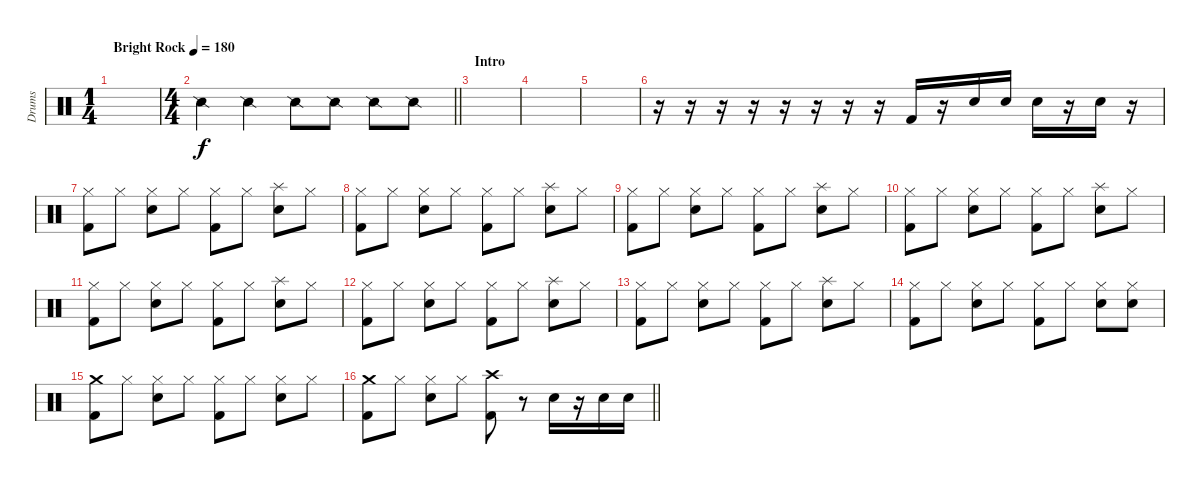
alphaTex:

\track ("Drums" "Drums") {instrument percussion}
\staff {score}
\articulation defaults
\ts (1 4)
\tempo (180 "Bright Rock")
\clef neutral
\ks c
|
\ts (4 4)
\barLineRight lightlight "Snare (side stick) 2".4 "Snare (side stick) 2".4 "Snare (side stick) 2".8 "Snare (side stick) 2".8 "Snare (side stick) 2".8 "Snare (side stick) 2".8
|
\section ("" "Intro")
|
|
|
r.16 r.16 r.16 r.16 r.16 r.16 r.16 r.16 "Kick (hit) 2".16 r.16 "Snare (hit) 2".16 "Snare (hit) 2".16 "Snare (hit) 2".16 r.16 "Snare (hit) 2".16 r.16 |
("Hi-Hat (closed)" "Kick (hit) 2").8 "Hi-Hat (closed)".8 ("Hi-Hat (closed)" "Snare (hit) 2").8 "Hi-Hat (closed)".8 ("Hi-Hat (closed)" "Kick (hit) 2").8 "Hi-Hat (closed)".8 ("Splash (hit)" "Snare (hit) 2").8 "Hi-Hat (closed)".8 |
("Hi-Hat (closed)" "Kick (hit) 2").8 "Hi-Hat (closed)".8 ("Hi-Hat (closed)" "Snare (hit) 2").8 "Hi-Hat (closed)".8 ("Hi-Hat (closed)" "Kick (hit) 2").8 "Hi-Hat (closed)".8 ("Splash (hit)" "Snare (hit) 2").8 "Hi-Hat (closed)".8 |
("Hi-Hat (closed)" "Kick (hit) 2").8 "Hi-Hat (closed)".8 ("Hi-Hat (closed)" "Snare (hit) 2").8 "Hi-Hat (closed)".8 ("Hi-Hat (closed)" "Kick (hit) 2").8 "Hi-Hat (closed)".8 ("Splash (hit)" "Snare (hit) 2").8 "Hi-Hat (closed)".8 |
("Hi-Hat (closed)" "Kick (hit) 2").8 "Hi-Hat (closed)".8 ("Hi-Hat (closed)" "Snare (hit) 2").8 "Hi-Hat (closed)".8 ("Hi-Hat (closed)" "Kick (hit) 2").8 "Hi-Hat (closed)".8 ("Splash (hit)" "Snare (hit) 2").8 "Hi-Hat (closed)".8 |
("Hi-Hat (closed)" "Kick (hit) 2").8 "Hi-Hat (closed)".8 ("Hi-Hat (closed)" "Snare (hit) 2").8 "Hi-Hat (closed)".8 ("Hi-Hat (closed)" "Kick (hit) 2").8 "Hi-Hat (closed)".8 ("Splash (hit)" "Snare (hit) 2").8 "Hi-Hat (closed)".8 |
("Hi-Hat (closed)" "Kick (hit) 2").8 "Hi-Hat (closed)".8 ("Hi-Hat (closed)" "Snare (hit) 2").8 "Hi-Hat (closed)".8 ("Hi-Hat (closed)" "Kick (hit) 2").8 "Hi-Hat (closed)".8 ("Splash (hit)" "Snare (hit) 2").8 "Hi-Hat (closed)".8 |
("Hi-Hat (closed)" "Kick (hit) 2").8 "Hi-Hat (closed)".8 ("Hi-Hat (closed)" "Snare (hit) 2").8 "Hi-Hat (closed)".8 ("Hi-Hat (closed)" "Kick (hit) 2").8 "Hi-Hat (closed)".8 ("Splash (hit)" "Snare (hit) 2").8 "Hi-Hat (closed)".8 |
("Hi-Hat (closed)" "Kick (hit) 2").8 "Hi-Hat (closed)".8 ("Hi-Hat (closed)" "Snare (hit) 2").8 "Hi-Hat (closed)".8 ("Hi-Hat (closed)" "Kick (hit) 2").8 "Hi-Hat (closed)".8 ("Hi-Hat (closed)" "Snare (hit) 2").8 ("Hi-Hat (closed)" "Snare (hit) 2").8 |
("Crash medium (hit)" "Kick (hit) 2").8 "Hi-Hat (closed)".8 ("Hi-Hat (closed)" "Snare (hit) 2").8 "Hi-Hat (closed)".8 ("Hi-Hat (closed)" "Kick (hit) 2").8 "Hi-Hat (closed)".8 ("Hi-Hat (closed)" "Snare (hit) 2").8 "Hi-Hat (closed)".8 |
\barLineRight lightlight
("Crash medium (hit)" "Kick (hit) 2").8 "Hi-Hat (closed)".8 ("Hi-Hat (closed)" "Snare (hit) 2").8 "Hi-Hat (closed)".8 ("Crash high (hit)" "Kick (hit) 2").8 r.8 "Snare (hit) 2".16 r.16 "Snare (hit) 2".16 "Snare (hit) 2".16
